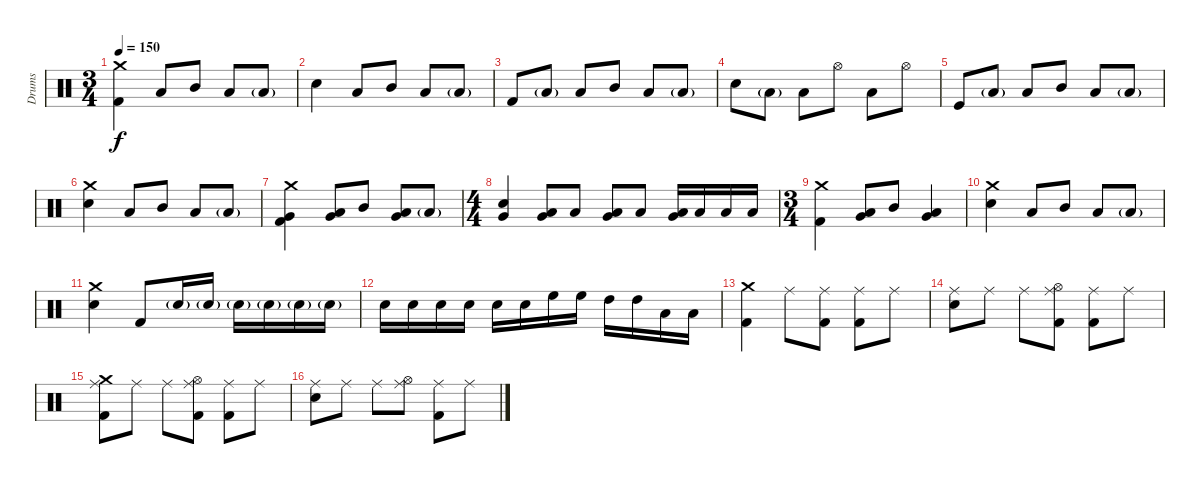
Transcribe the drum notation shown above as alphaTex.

\track ("Drums" "Drums") {instrument percussion}
\staff {score}
\articulation defaults
\ts (3 4)
\tempo 150
\clef neutral
\ks c
("Crash medium (hit)" "Kick (hit) 2").4{dy f} "Low Tom (hit)".8 "Mid Tom (hit)".8 "Low Tom (hit)".8 "Low Tom (hit)"{g}.8 |
"Snare (hit) 2".4 "Low Tom (hit)".8 "Mid Tom (hit)".8 "Low Tom (hit)".8 "Low Tom (hit)"{g}.8 |
"Kick (hit) 2".8 "Low Tom (hit)"{g}.8 "Low Tom (hit)".8 "Mid Tom (hit)".8 "Low Tom (hit)".8 "Low Tom (hit)"{g}.8 |
"Snare (hit) 2".8 "Low Tom (hit)"{g}.8 "Low Tom (hit)".8 "Hi-Hat (open)".8 "Low Tom (hit)".8 "Hi-Hat (open)".8 |
"Kick (hit)".8 "Low Tom (hit)"{g}.8 "Low Tom (hit)".8 "Mid Tom (hit)".8 "Low Tom (hit)".8 "Low Tom (hit)"{g}.8 |
("Crash medium (hit)" "Snare (hit) 2").4 "Low Tom (hit)".8 "Mid Tom (hit)".8 "Low Tom (hit)".8 "Low Tom (hit)"{g}.8 |
("Crash medium (hit)" "Very Low Tom (hit)" "Kick (hit) 2").4 ("Low Tom (hit)" "Very Low Tom (hit)").8 "Mid Tom (hit)".8 ("Low Tom (hit)" "Very Low Tom (hit)").8 "Low Tom (hit)"{g}.8 |
\ts (4 4)
("Very Low Tom (hit)" "Snare (hit) 2").4 ("Low Tom (hit)" "Very Low Tom (hit)").8 "Low Tom (hit)".8 ("Low Tom (hit)" "Very Low Tom (hit)").8 "Low Tom (hit)".8 ("Low Tom (hit)" "Very Low Tom (hit)").16 "Low Tom (hit)".16 "Low Tom (hit)".16 "Low Tom (hit)".16 |
\ts (3 4)
("Crash medium (hit)" "Kick (hit) 2").4 ("Low Tom (hit)" "Very Low Tom (hit)").8 "Mid Tom (hit)".8 ("Low Tom (hit)" "Very Low Tom (hit)").4 |
("Crash medium (hit)" "Snare (hit) 2").4 "Low Tom (hit)".8 "Mid Tom (hit)".8 "Low Tom (hit)".8 "Low Tom (hit)"{g}.8 |
("Crash medium (hit)" "Snare (hit) 2").4 "Kick (hit) 2".8 "Snare (hit) 2"{g}.16 "Snare (hit) 2"{g}.16 "Snare (hit) 2"{g}.16 "Snare (hit) 2"{g}.16 "Snare (hit) 2"{g}.16 "Snare (hit) 2"{g}.16 |
"Snare (hit) 2".16 "Snare (hit) 2".16 "Snare (hit) 2".16 "Snare (hit) 2".16 "Snare (hit) 2".16 "Snare (hit) 2".16 "High Floor Tom (hit)".16 "High Floor Tom (hit)".16 "High Tom (hit)".16 "High Tom (hit)".16 "Low Tom (hit)".16 "Low Tom (hit)".16 |
("Crash medium (hit)" "Kick (hit) 2").4 "Ride (middle)".8 ("Ride (middle)" "Kick (hit) 2").8 ("Ride (middle)" "Kick (hit) 2").8 "Ride (middle)".8 |
("Ride (middle)" "Snare (hit) 2").8 "Ride (middle)".8 "Ride (middle)".8 ("Ride (middle)" "Hi-Hat (open)" "Kick (hit) 2").8 ("Ride (middle)" "Kick (hit) 2").8 "Ride (middle)".8 |
("Crash medium (hit)" "Ride (middle)" "Kick (hit) 2").8 "Ride (middle)".8 "Ride (middle)".8 ("Ride (middle)" "Hi-Hat (open)" "Kick (hit) 2").8 ("Ride (middle)" "Kick (hit) 2").8 "Ride (middle)".8 |
("Ride (middle)" "Snare (hit) 2").8 "Ride (middle)".8 "Ride (middle)".8 ("Ride (middle)" "Hi-Hat (open)").8 ("Ride (middle)" "Kick (hit) 2").8 "Ride (middle)".8
